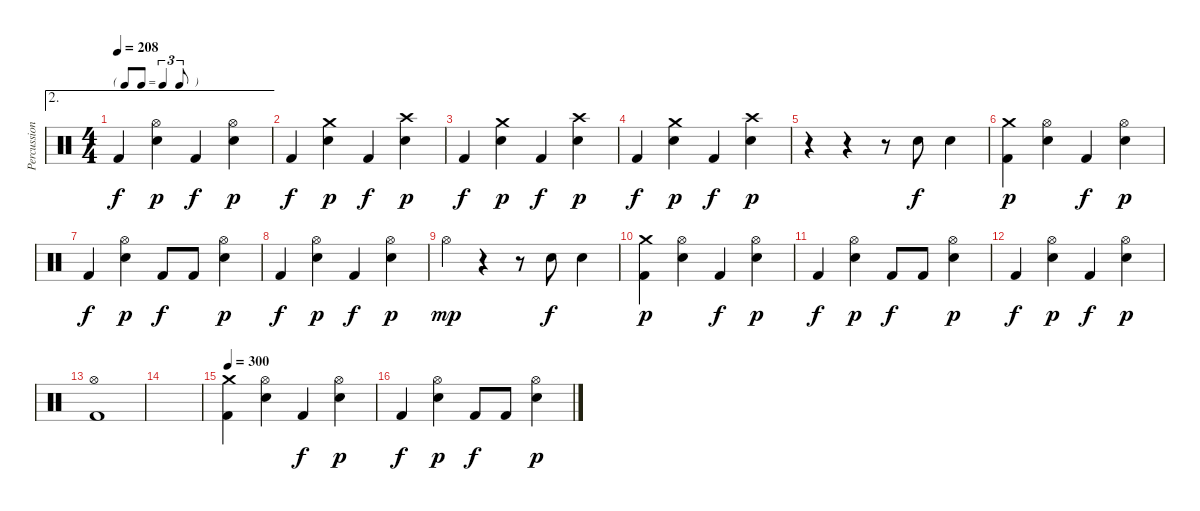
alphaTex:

\track ("Percussions" "Percussion") {instrument percussion}
\staff {score}
\articulation defaults
\ae 2
\ts (4 4)
\tf triplet8th
\tempo 208
\clef neutral
\ks c "Kick (hit) 2".4{dy f}
("Hi-Hat (open)" "Electric Snare (hit)").4{dy p} "Kick (hit) 2".4{dy f} ("Hi-Hat (open)" "Electric Snare (hit)").4{dy p} |
"Kick (hit) 2".4{dy f} ("Crash medium (hit)" "Electric Snare (hit)").4{dy p} "Kick (hit) 2".4{dy f} ("Crash high (hit)" "Electric Snare (hit)").4{dy p} |
"Kick (hit) 2".4{dy f} ("Crash medium (hit)" "Electric Snare (hit)").4{dy p} "Kick (hit) 2".4{dy f} ("Crash high (hit)" "Electric Snare (hit)").4{dy p} |
"Kick (hit) 2".4{dy f} ("Crash medium (hit)" "Electric Snare (hit)").4{dy p} "Kick (hit) 2".4{dy f} ("Crash high (hit)" "Electric Snare (hit)").4{dy p} |
r.4 r.4 r.8 "Electric Snare (hit)".8{dy f} "Electric Snare (hit)".4 |
("Crash medium (hit)" "Kick (hit) 2").4{dy p} ("Hi-Hat (open)" "Electric Snare (hit)").4 "Kick (hit) 2".4{dy f} ("Hi-Hat (open)" "Electric Snare (hit)").4{dy p} |
"Kick (hit) 2".4{dy f} ("Hi-Hat (open)" "Electric Snare (hit)").4{dy p} "Kick (hit) 2".8{dy f} "Kick (hit) 2".8 ("Hi-Hat (open)" "Electric Snare (hit)").4{dy p} |
"Kick (hit) 2".4{dy f} ("Hi-Hat (open)" "Electric Snare (hit)").4{dy p} "Kick (hit) 2".4{dy f} ("Hi-Hat (open)" "Electric Snare (hit)").4{dy p} |
"Hi-Hat (open)".4{dy mp} r.4 r.8 "Electric Snare (hit)".8{dy f} "Electric Snare (hit)".4 |
("Crash medium (hit)" "Kick (hit) 2").4{dy p} ("Hi-Hat (open)" "Electric Snare (hit)").4 "Kick (hit) 2".4{dy f} ("Hi-Hat (open)" "Electric Snare (hit)").4{dy p} |
"Kick (hit) 2".4{dy f} ("Hi-Hat (open)" "Electric Snare (hit)").4{dy p} "Kick (hit) 2".8{dy f} "Kick (hit) 2".8 ("Hi-Hat (open)" "Electric Snare (hit)").4{dy p} |
"Kick (hit) 2".4{dy f} ("Hi-Hat (open)" "Electric Snare (hit)").4{dy p} "Kick (hit) 2".4{dy f} ("Hi-Hat (open)" "Electric Snare (hit)").4{dy p} |
("Hi-Hat (open)" "Kick (hit) 2").1 |
|
\tempo 300
("Crash medium (hit)" "Kick (hit) 2").4 ("Hi-Hat (open)" "Electric Snare (hit)").4 "Kick (hit) 2".4{dy f} ("Hi-Hat (open)" "Electric Snare (hit)").4{dy p} |
"Kick (hit) 2".4{dy f} ("Hi-Hat (open)" "Electric Snare (hit)").4{dy p} "Kick (hit) 2".8{dy f} "Kick (hit) 2".8 ("Hi-Hat (open)" "Electric Snare (hit)").4{dy p}
